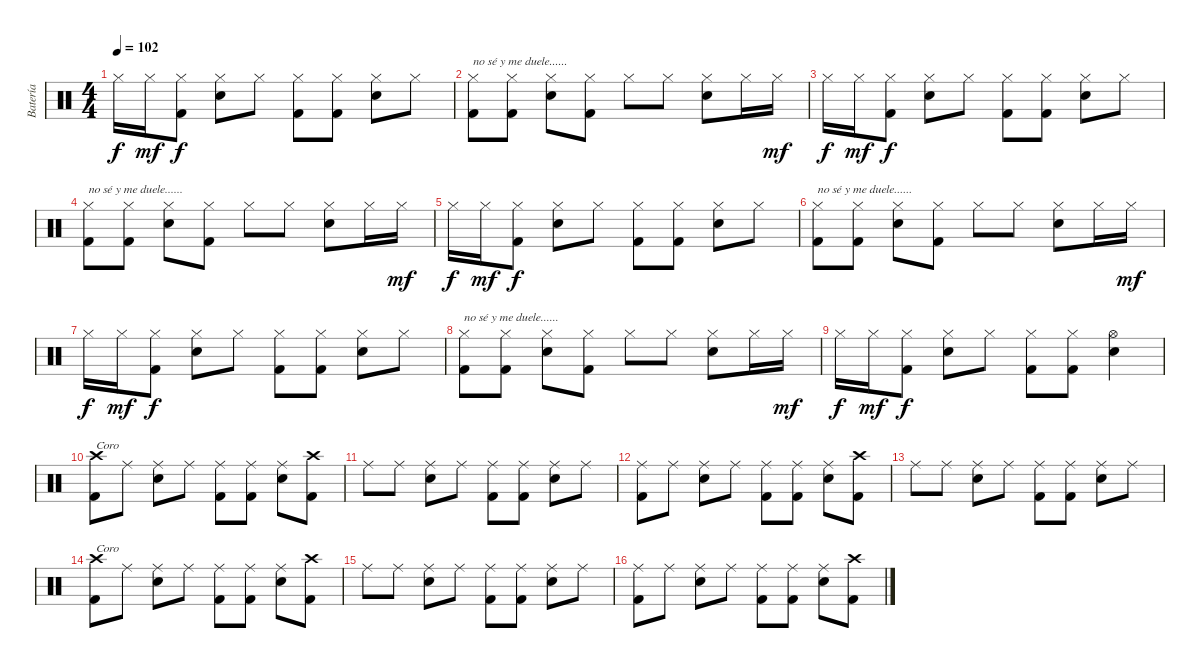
\track ("Batería" "Batería") {instrument percussion}
\staff {score}
\articulation defaults
\ts (4 4)
\tempo 102
\clef neutral
\ks c "Hi-Hat (closed)".16{dy f} "Hi-Hat (closed)".16{dy mf}
("Hi-Hat (closed)" "Kick (hit) 2").8{dy f} ("Hi-Hat (closed)" "Snare (hit) 2").8 "Hi-Hat (closed)".8 ("Hi-Hat (closed)" "Kick (hit) 2").8 ("Hi-Hat (closed)" "Kick (hit) 2").8 ("Hi-Hat (closed)" "Snare (hit) 2").8 "Hi-Hat (closed)".8 |
("Hi-Hat (closed)" "Kick (hit) 2").8{txt "no sé y me duele......"} ("Hi-Hat (closed)" "Kick (hit) 2").8 ("Hi-Hat (closed)" "Snare (hit) 2").8 ("Hi-Hat (closed)" "Kick (hit) 2").8 "Hi-Hat (closed)".8 "Hi-Hat (closed)".8 ("Hi-Hat (closed)" "Snare (hit) 2").8 "Hi-Hat (closed)".16 "Hi-Hat (closed)".16{dy mf} |
"Hi-Hat (closed)".16{dy f} "Hi-Hat (closed)".16{dy mf} ("Hi-Hat (closed)" "Kick (hit) 2").8{dy f} ("Hi-Hat (closed)" "Snare (hit) 2").8 "Hi-Hat (closed)".8 ("Hi-Hat (closed)" "Kick (hit) 2").8 ("Hi-Hat (closed)" "Kick (hit) 2").8 ("Hi-Hat (closed)" "Snare (hit) 2").8 "Hi-Hat (closed)".8 |
("Hi-Hat (closed)" "Kick (hit) 2").8{txt "no sé y me duele......"} ("Hi-Hat (closed)" "Kick (hit) 2").8 ("Hi-Hat (closed)" "Snare (hit) 2").8 ("Hi-Hat (closed)" "Kick (hit) 2").8 "Hi-Hat (closed)".8 "Hi-Hat (closed)".8 ("Hi-Hat (closed)" "Snare (hit) 2").8 "Hi-Hat (closed)".16 "Hi-Hat (closed)".16{dy mf} |
"Hi-Hat (closed)".16{dy f} "Hi-Hat (closed)".16{dy mf} ("Hi-Hat (closed)" "Kick (hit) 2").8{dy f} ("Hi-Hat (closed)" "Snare (hit) 2").8 "Hi-Hat (closed)".8 ("Hi-Hat (closed)" "Kick (hit) 2").8 ("Hi-Hat (closed)" "Kick (hit) 2").8 ("Hi-Hat (closed)" "Snare (hit) 2").8 "Hi-Hat (closed)".8 |
("Hi-Hat (closed)" "Kick (hit) 2").8{txt "no sé y me duele......"} ("Hi-Hat (closed)" "Kick (hit) 2").8 ("Hi-Hat (closed)" "Snare (hit) 2").8 ("Hi-Hat (closed)" "Kick (hit) 2").8 "Hi-Hat (closed)".8 "Hi-Hat (closed)".8 ("Hi-Hat (closed)" "Snare (hit) 2").8 "Hi-Hat (closed)".16 "Hi-Hat (closed)".16{dy mf} |
"Hi-Hat (closed)".16{dy f} "Hi-Hat (closed)".16{dy mf} ("Hi-Hat (closed)" "Kick (hit) 2").8{dy f} ("Hi-Hat (closed)" "Snare (hit) 2").8 "Hi-Hat (closed)".8 ("Hi-Hat (closed)" "Kick (hit) 2").8 ("Hi-Hat (closed)" "Kick (hit) 2").8 ("Hi-Hat (closed)" "Snare (hit) 2").8 "Hi-Hat (closed)".8 |
("Hi-Hat (closed)" "Kick (hit) 2").8{txt "no sé y me duele......"} ("Hi-Hat (closed)" "Kick (hit) 2").8 ("Hi-Hat (closed)" "Snare (hit) 2").8 ("Hi-Hat (closed)" "Kick (hit) 2").8 "Hi-Hat (closed)".8 "Hi-Hat (closed)".8 ("Hi-Hat (closed)" "Snare (hit) 2").8 "Hi-Hat (closed)".16 "Hi-Hat (closed)".16{dy mf} |
"Hi-Hat (closed)".16{dy f} "Hi-Hat (closed)".16{dy mf} ("Hi-Hat (closed)" "Kick (hit) 2").8{dy f} ("Hi-Hat (closed)" "Snare (hit) 2").8 "Hi-Hat (closed)".8 ("Hi-Hat (closed)" "Kick (hit) 2").8 ("Hi-Hat (closed)" "Kick (hit) 2").8 ("Hi-Hat (open)" "Snare (hit) 2").4 |
("Crash high (hit)" "Kick (hit) 2").8{txt "Coro"} "Ride (middle)".8 ("Ride (middle)" "Snare (hit) 2").8 "Ride (middle)".8 ("Ride (middle)" "Kick (hit) 2").8 ("Ride (middle)" "Kick (hit) 2").8 ("Ride (middle)" "Snare (hit) 2").8 ("Crash high (hit)" "Kick (hit) 2").8 |
"Ride (middle)".8 "Ride (middle)".8 ("Ride (middle)" "Snare (hit) 2").8 "Ride (middle)".8 ("Ride (middle)" "Kick (hit) 2").8 ("Ride (middle)" "Kick (hit) 2").8 ("Ride (middle)" "Snare (hit) 2").8 "Ride (middle)".8 |
("Ride (middle)" "Kick (hit) 2").8 "Ride (middle)".8 ("Ride (middle)" "Snare (hit) 2").8 "Ride (middle)".8 ("Ride (middle)" "Kick (hit) 2").8 ("Ride (middle)" "Kick (hit) 2").8 ("Ride (middle)" "Snare (hit) 2").8 ("Crash high (hit)" "Kick (hit) 2").8 |
"Ride (middle)".8 "Ride (middle)".8 ("Ride (middle)" "Snare (hit) 2").8 "Ride (middle)".8 ("Ride (middle)" "Kick (hit) 2").8 ("Ride (middle)" "Kick (hit) 2").8 ("Ride (middle)" "Snare (hit) 2").8 "Ride (middle)".8 |
("Crash high (hit)" "Kick (hit) 2").8{txt "Coro"} "Ride (middle)".8 ("Ride (middle)" "Snare (hit) 2").8 "Ride (middle)".8 ("Ride (middle)" "Kick (hit) 2").8 ("Ride (middle)" "Kick (hit) 2").8 ("Ride (middle)" "Snare (hit) 2").8 ("Crash high (hit)" "Kick (hit) 2").8 |
"Ride (middle)".8 "Ride (middle)".8 ("Ride (middle)" "Snare (hit) 2").8 "Ride (middle)".8 ("Ride (middle)" "Kick (hit) 2").8 ("Ride (middle)" "Kick (hit) 2").8 ("Ride (middle)" "Snare (hit) 2").8 "Ride (middle)".8 |
("Ride (middle)" "Kick (hit) 2").8 "Ride (middle)".8 ("Ride (middle)" "Snare (hit) 2").8 "Ride (middle)".8 ("Ride (middle)" "Kick (hit) 2").8 ("Ride (middle)" "Kick (hit) 2").8 ("Ride (middle)" "Snare (hit) 2").8 ("Crash high (hit)" "Kick (hit) 2").8
